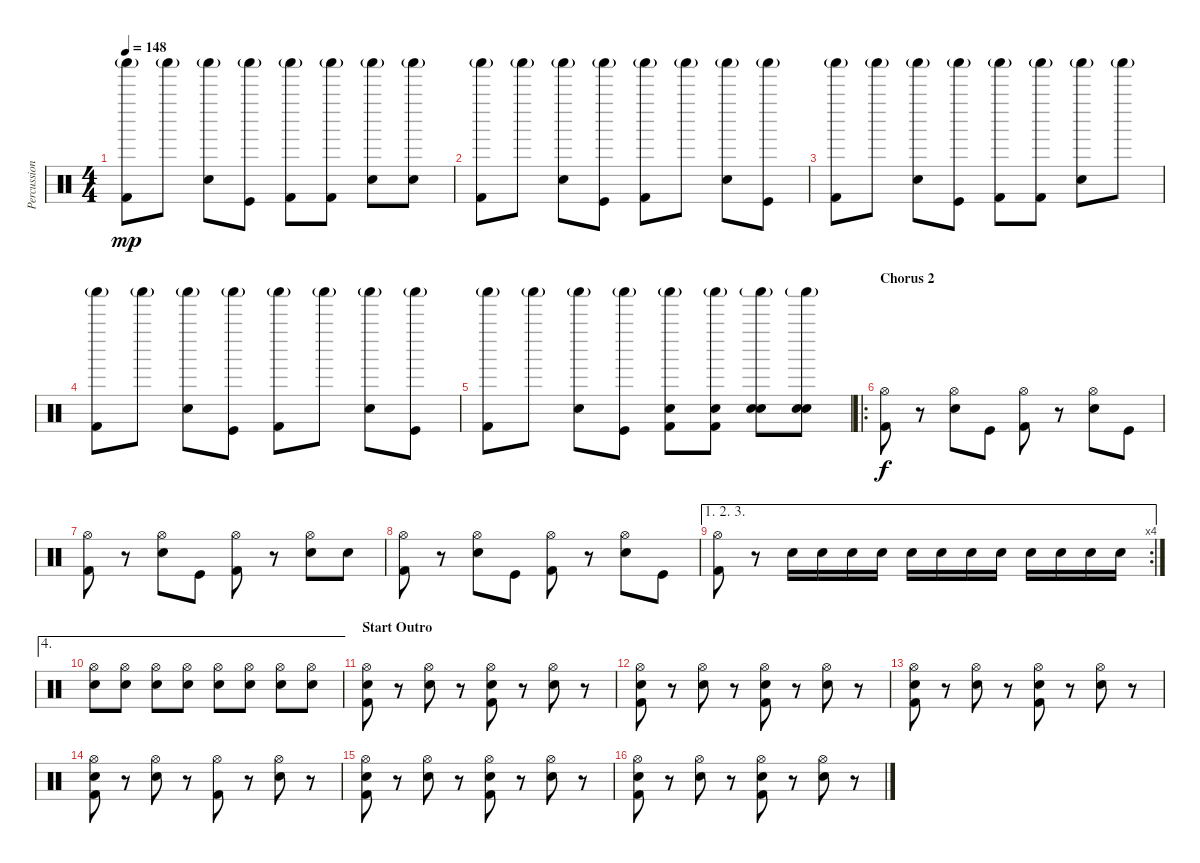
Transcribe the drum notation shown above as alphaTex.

\track ("Percussion" "Percussion") {instrument percussion}
\staff {score}
\articulation defaults
\ts (4 4)
\tempo 148
\clef neutral
\ks c
("Shaker (hit)"{g} "Kick (hit) 2").8{dy mp} "Shaker (hit)"{g}.8 ("Shaker (hit)"{g} "Snare (hit) 2").8 ("Shaker (hit)"{g} "Kick (hit)").8 ("Shaker (hit)"{g} "Kick (hit) 2").8 ("Shaker (hit)"{g} "Kick (hit) 2").8 ("Shaker (hit)"{g} "Snare (hit) 2").8 ("Shaker (hit)"{g} "Snare (hit) 2").8 |
("Shaker (hit)"{g} "Kick (hit) 2").8 "Shaker (hit)"{g}.8 ("Shaker (hit)"{g} "Snare (hit) 2").8 ("Shaker (hit)"{g} "Kick (hit)").8 ("Shaker (hit)"{g} "Kick (hit) 2").8 "Shaker (hit)"{g}.8 ("Shaker (hit)"{g} "Snare (hit) 2").8 ("Shaker (hit)"{g} "Kick (hit)").8 |
("Shaker (hit)"{g} "Kick (hit) 2").8 "Shaker (hit)"{g}.8 ("Shaker (hit)"{g} "Snare (hit) 2").8 ("Shaker (hit)"{g} "Kick (hit)").8 ("Shaker (hit)"{g} "Kick (hit) 2").8 ("Shaker (hit)"{g} "Kick (hit) 2").8 ("Shaker (hit)"{g} "Snare (hit) 2").8 "Shaker (hit)"{g}.8 |
("Shaker (hit)"{g} "Kick (hit) 2").8 "Shaker (hit)"{g}.8 ("Shaker (hit)"{g} "Snare (hit) 2").8 ("Shaker (hit)"{g} "Kick (hit)").8 ("Shaker (hit)"{g} "Kick (hit) 2").8 "Shaker (hit)"{g}.8 ("Shaker (hit)"{g} "Snare (hit) 2").8 ("Shaker (hit)"{g} "Kick (hit)").8 |
("Shaker (hit)"{g} "Kick (hit) 2").8 "Shaker (hit)"{g}.8 ("Shaker (hit)"{g} "Snare (hit) 2").8 ("Shaker (hit)"{g} "Kick (hit)").8 ("Shaker (hit)"{g} "Snare (hit) 2" "Kick (hit) 2").8 ("Shaker (hit)"{g} "Snare (hit) 2" "Kick (hit) 2").8 ("Shaker (hit)"{g} "Snare (hit) 2" "Snare (hit) 2").8 ("Shaker (hit)"{g} "Snare (hit) 2" "Snare (hit) 2").8 |
\ro
\section ("" "Chorus 2")
("Hi-Hat (open)" "Kick (hit) 2").8{dy f} r.8 ("Hi-Hat (open)" "Snare (hit) 2").8 "Kick (hit)".8 ("Hi-Hat (open)" "Kick (hit) 2").8 r.8 ("Hi-Hat (open)" "Snare (hit) 2").8 "Kick (hit)".8 |
("Hi-Hat (open)" "Kick (hit) 2").8 r.8 ("Hi-Hat (open)" "Snare (hit) 2").8 "Kick (hit)".8 ("Hi-Hat (open)" "Kick (hit) 2").8 r.8 ("Hi-Hat (open)" "Snare (hit) 2").8 "Snare (hit) 2".8 |
("Hi-Hat (open)" "Kick (hit) 2").8 r.8 ("Hi-Hat (open)" "Snare (hit) 2").8 "Kick (hit)".8 ("Hi-Hat (open)" "Kick (hit) 2").8 r.8 ("Hi-Hat (open)" "Snare (hit) 2").8 "Kick (hit)".8 |
\ae (1 2 3)
\rc 4
("Hi-Hat (open)" "Kick (hit) 2").8 r.8 "Snare (hit) 2".16 "Snare (hit) 2".16 "Snare (hit) 2".16 "Snare (hit) 2".16 "Snare (hit) 2".16 "Snare (hit) 2".16 "Snare (hit) 2".16 "Snare (hit) 2".16 "Snare (hit) 2".16 "Snare (hit) 2".16 "Snare (hit) 2".16 "Snare (hit) 2".16 |
\ae 4
("Hi-Hat (open)" "Snare (hit) 2").8 ("Hi-Hat (open)" "Snare (hit) 2").8 ("Hi-Hat (open)" "Snare (hit) 2").8 ("Hi-Hat (open)" "Snare (hit) 2").8 ("Hi-Hat (open)" "Snare (hit) 2").8 ("Hi-Hat (open)" "Snare (hit) 2").8 ("Hi-Hat (open)" "Snare (hit) 2").8 ("Hi-Hat (open)" "Snare (hit) 2").8 |
\section ("" "Start Outro")
("Hi-Hat (open)" "Snare (hit) 2" "Kick (hit) 2").8 r.8 ("Hi-Hat (open)" "Snare (hit) 2").8 r.8 ("Hi-Hat (open)" "Snare (hit) 2" "Kick (hit) 2").8 r.8 ("Hi-Hat (open)" "Snare (hit) 2").8 r.8 |
("Hi-Hat (open)" "Snare (hit) 2" "Kick (hit) 2").8 r.8 ("Hi-Hat (open)" "Snare (hit) 2").8 r.8 ("Hi-Hat (open)" "Snare (hit) 2" "Kick (hit) 2").8 r.8 ("Hi-Hat (open)" "Snare (hit) 2").8 r.8 |
("Hi-Hat (open)" "Snare (hit) 2" "Kick (hit) 2").8 r.8 ("Hi-Hat (open)" "Snare (hit) 2").8 r.8 ("Hi-Hat (open)" "Snare (hit) 2" "Kick (hit) 2").8 r.8 ("Hi-Hat (open)" "Snare (hit) 2").8 r.8 |
("Hi-Hat (open)" "Snare (hit) 2" "Kick (hit) 2").8 r.8 ("Hi-Hat (open)" "Snare (hit) 2").8 r.8 ("Hi-Hat (open)" "Kick (hit) 2").8 r.8 ("Hi-Hat (open)" "Snare (hit) 2").8 r.8 |
("Hi-Hat (open)" "Snare (hit) 2" "Kick (hit) 2").8 r.8 ("Hi-Hat (open)" "Snare (hit) 2").8 r.8 ("Hi-Hat (open)" "Snare (hit) 2" "Kick (hit) 2").8 r.8 ("Hi-Hat (open)" "Snare (hit) 2").8 r.8 |
("Hi-Hat (open)" "Snare (hit) 2" "Kick (hit) 2").8 r.8 ("Hi-Hat (open)" "Snare (hit) 2").8 r.8 ("Hi-Hat (open)" "Snare (hit) 2" "Kick (hit) 2").8 r.8 ("Hi-Hat (open)" "Snare (hit) 2").8 r.8
